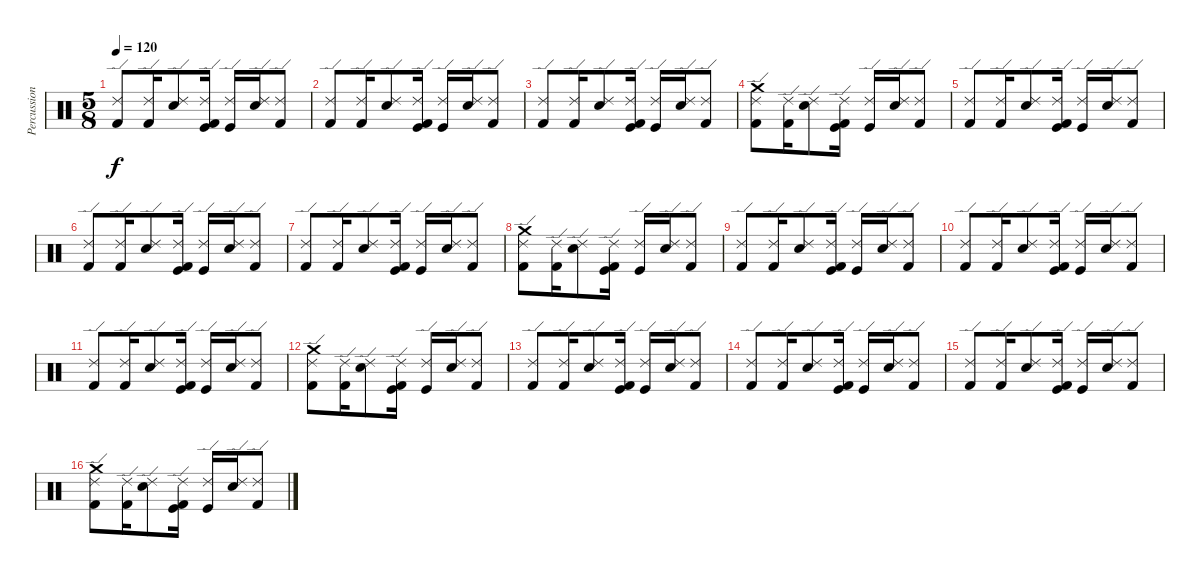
\track ("Percussion" "Percussion") {instrument percussion}
\staff {score}
\articulation defaults
\ts (5 8)
\tempo 120
\clef neutral
\ks c
("Kick (hit) 2" "Ride (edge) 2").8{dy f} ("Kick (hit) 2" "Ride (edge) 2").16 ("Electric Snare (hit)" "Ride (edge) 2").8 ("Kick (hit) 2" "Kick (hit)" "Ride (edge) 2").16 ("Kick (hit)" "Ride (edge) 2").16 ("Electric Snare (hit)" "Ride (edge) 2").16 ("Kick (hit) 2" "Ride (edge) 2").8 |
("Kick (hit) 2" "Ride (edge) 2").8 ("Kick (hit) 2" "Ride (edge) 2").16 ("Electric Snare (hit)" "Ride (edge) 2").8 ("Kick (hit) 2" "Kick (hit)" "Ride (edge) 2").16 ("Kick (hit)" "Ride (edge) 2").16 ("Electric Snare (hit)" "Ride (edge) 2").16 ("Kick (hit) 2" "Ride (edge) 2").8 |
("Kick (hit) 2" "Ride (edge) 2").8 ("Kick (hit) 2" "Ride (edge) 2").16 ("Electric Snare (hit)" "Ride (edge) 2").8 ("Kick (hit) 2" "Kick (hit)" "Ride (edge) 2").16 ("Kick (hit)" "Ride (edge) 2").16 ("Electric Snare (hit)" "Ride (edge) 2").16 ("Kick (hit) 2" "Ride (edge) 2").8 |
("Kick (hit) 2" "Crash medium (hit)" "Ride (edge) 2").8 ("Kick (hit) 2" "Ride (edge) 2").16 ("Electric Snare (hit)" "Ride (edge) 2").8 ("Kick (hit) 2" "Kick (hit)" "Ride (edge) 2").16 ("Kick (hit)" "Ride (edge) 2").16 ("Electric Snare (hit)" "Ride (edge) 2").16 ("Kick (hit) 2" "Ride (edge) 2").8 |
("Kick (hit) 2" "Ride (edge) 2").8 ("Kick (hit) 2" "Ride (edge) 2").16 ("Electric Snare (hit)" "Ride (edge) 2").8 ("Kick (hit) 2" "Kick (hit)" "Ride (edge) 2").16 ("Kick (hit)" "Ride (edge) 2").16 ("Electric Snare (hit)" "Ride (edge) 2").16 ("Kick (hit) 2" "Ride (edge) 2").8 |
("Kick (hit) 2" "Ride (edge) 2").8 ("Kick (hit) 2" "Ride (edge) 2").16 ("Electric Snare (hit)" "Ride (edge) 2").8 ("Kick (hit) 2" "Kick (hit)" "Ride (edge) 2").16 ("Kick (hit)" "Ride (edge) 2").16 ("Electric Snare (hit)" "Ride (edge) 2").16 ("Kick (hit) 2" "Ride (edge) 2").8 |
("Kick (hit) 2" "Ride (edge) 2").8 ("Kick (hit) 2" "Ride (edge) 2").16 ("Electric Snare (hit)" "Ride (edge) 2").8 ("Kick (hit) 2" "Kick (hit)" "Ride (edge) 2").16 ("Kick (hit)" "Ride (edge) 2").16 ("Electric Snare (hit)" "Ride (edge) 2").16 ("Kick (hit) 2" "Ride (edge) 2").8 |
("Kick (hit) 2" "Crash medium (hit)" "Ride (edge) 2").8 ("Kick (hit) 2" "Ride (edge) 2").16 ("Electric Snare (hit)" "Ride (edge) 2").8 ("Kick (hit) 2" "Kick (hit)" "Ride (edge) 2").16 ("Kick (hit)" "Ride (edge) 2").16 ("Electric Snare (hit)" "Ride (edge) 2").16 ("Kick (hit) 2" "Ride (edge) 2").8 |
("Kick (hit) 2" "Ride (edge) 2").8 ("Kick (hit) 2" "Ride (edge) 2").16 ("Electric Snare (hit)" "Ride (edge) 2").8 ("Kick (hit) 2" "Kick (hit)" "Ride (edge) 2").16 ("Kick (hit)" "Ride (edge) 2").16 ("Electric Snare (hit)" "Ride (edge) 2").16 ("Kick (hit) 2" "Ride (edge) 2").8 |
("Kick (hit) 2" "Ride (edge) 2").8 ("Kick (hit) 2" "Ride (edge) 2").16 ("Electric Snare (hit)" "Ride (edge) 2").8 ("Kick (hit) 2" "Kick (hit)" "Ride (edge) 2").16 ("Kick (hit)" "Ride (edge) 2").16 ("Electric Snare (hit)" "Ride (edge) 2").16 ("Kick (hit) 2" "Ride (edge) 2").8 |
("Kick (hit) 2" "Ride (edge) 2").8 ("Kick (hit) 2" "Ride (edge) 2").16 ("Electric Snare (hit)" "Ride (edge) 2").8 ("Kick (hit) 2" "Kick (hit)" "Ride (edge) 2").16 ("Kick (hit)" "Ride (edge) 2").16 ("Electric Snare (hit)" "Ride (edge) 2").16 ("Kick (hit) 2" "Ride (edge) 2").8 |
("Kick (hit) 2" "Crash medium (hit)" "Ride (edge) 2").8 ("Kick (hit) 2" "Ride (edge) 2").16 ("Electric Snare (hit)" "Ride (edge) 2").8 ("Kick (hit) 2" "Kick (hit)" "Ride (edge) 2").16 ("Kick (hit)" "Ride (edge) 2").16 ("Electric Snare (hit)" "Ride (edge) 2").16 ("Kick (hit) 2" "Ride (edge) 2").8 |
("Kick (hit) 2" "Ride (edge) 2").8 ("Kick (hit) 2" "Ride (edge) 2").16 ("Electric Snare (hit)" "Ride (edge) 2").8 ("Kick (hit) 2" "Kick (hit)" "Ride (edge) 2").16 ("Kick (hit)" "Ride (edge) 2").16 ("Electric Snare (hit)" "Ride (edge) 2").16 ("Kick (hit) 2" "Ride (edge) 2").8 |
("Kick (hit) 2" "Ride (edge) 2").8 ("Kick (hit) 2" "Ride (edge) 2").16 ("Electric Snare (hit)" "Ride (edge) 2").8 ("Kick (hit) 2" "Kick (hit)" "Ride (edge) 2").16 ("Kick (hit)" "Ride (edge) 2").16 ("Electric Snare (hit)" "Ride (edge) 2").16 ("Kick (hit) 2" "Ride (edge) 2").8 |
("Kick (hit) 2" "Ride (edge) 2").8 ("Kick (hit) 2" "Ride (edge) 2").16 ("Electric Snare (hit)" "Ride (edge) 2").8 ("Kick (hit) 2" "Kick (hit)" "Ride (edge) 2").16 ("Kick (hit)" "Ride (edge) 2").16 ("Electric Snare (hit)" "Ride (edge) 2").16 ("Kick (hit) 2" "Ride (edge) 2").8 |
("Kick (hit) 2" "Crash medium (hit)" "Ride (edge) 2").8 ("Kick (hit) 2" "Ride (edge) 2").16 ("Electric Snare (hit)" "Ride (edge) 2").8 ("Kick (hit) 2" "Kick (hit)" "Ride (edge) 2").16 ("Kick (hit)" "Ride (edge) 2").16 ("Electric Snare (hit)" "Ride (edge) 2").16 ("Kick (hit) 2" "Ride (edge) 2").8
